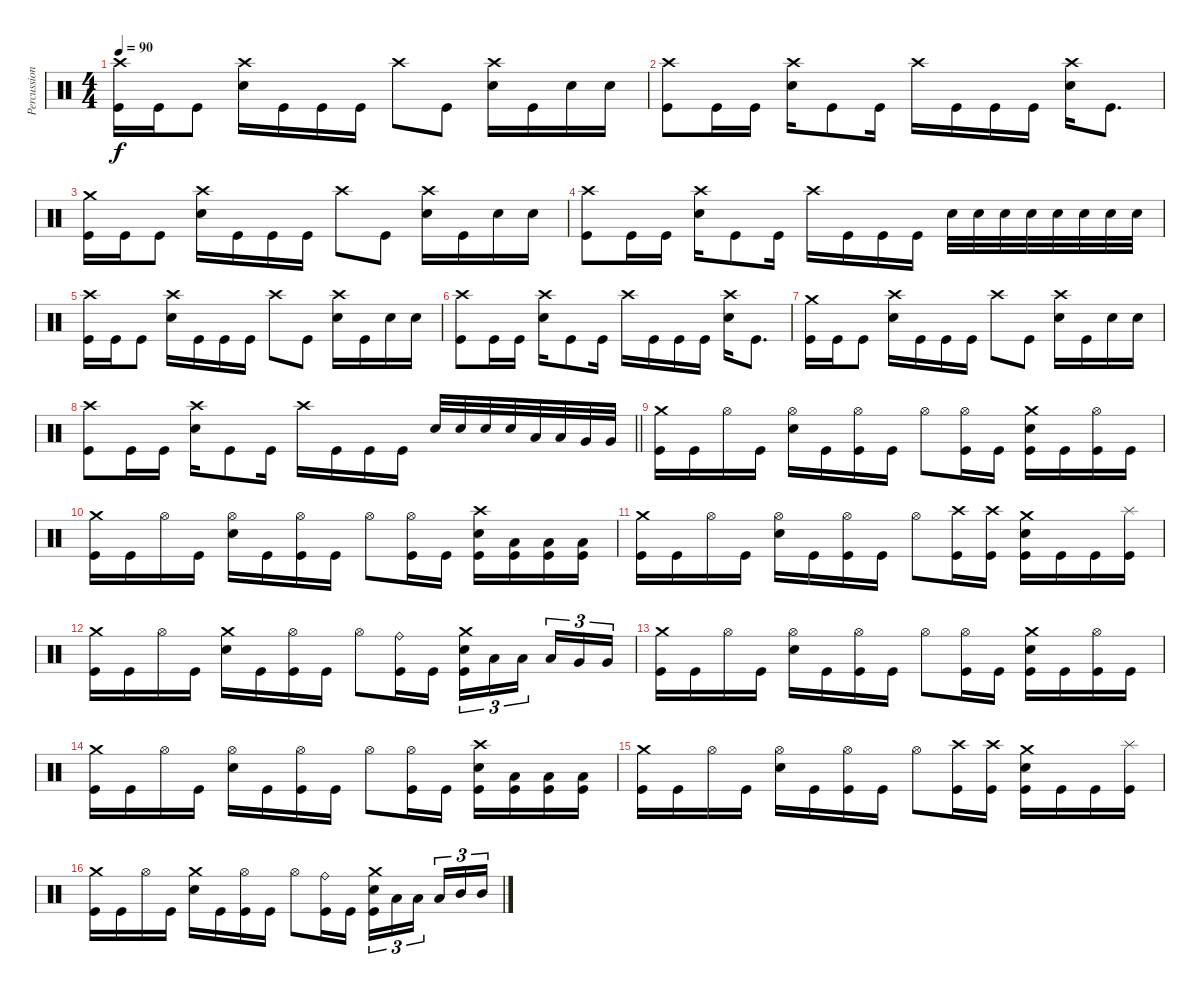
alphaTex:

\track ("Percussion" "Percussion") {instrument percussion}
\staff {score}
\articulation defaults
\ts (4 4)
\tempo 90
\clef neutral
\ks c
("Crash high (hit)" "Kick (hit)").16{dy f} "Kick (hit)".16 "Kick (hit)".8 ("Crash high (hit)" "Electric Snare (hit)").16 "Kick (hit)".16 "Kick (hit)".16 "Kick (hit)".16 "Crash high (hit)".8 "Kick (hit)".8 ("Crash high (hit)" "Electric Snare (hit)").16 "Kick (hit)".16 "Electric Snare (hit)".16 "Electric Snare (hit)".16 |
("Crash high (hit)" "Kick (hit)").8 "Kick (hit)".16 "Kick (hit)".16 ("Crash high (hit)" "Electric Snare (hit)").16 "Kick (hit)".8 "Kick (hit)".16 "Crash high (hit)".16 "Kick (hit)".16 "Kick (hit)".16 "Kick (hit)".16 ("Crash high (hit)" "Electric Snare (hit)").16 "Kick (hit)".8{d} |
("Crash medium (hit)" "Kick (hit)").16 "Kick (hit)".16 "Kick (hit)".8 ("Crash high (hit)" "Electric Snare (hit)").16 "Kick (hit)".16 "Kick (hit)".16 "Kick (hit)".16 "Crash high (hit)".8 "Kick (hit)".8 ("Crash high (hit)" "Electric Snare (hit)").16 "Kick (hit)".16 "Electric Snare (hit)".16 "Electric Snare (hit)".16 |
("Crash high (hit)" "Kick (hit)").8 "Kick (hit)".16 "Kick (hit)".16 ("Crash high (hit)" "Electric Snare (hit)").16 "Kick (hit)".8 "Kick (hit)".16 "Crash high (hit)".16 "Kick (hit)".16 "Kick (hit)".16 "Kick (hit)".16 "Electric Snare (hit)".32 "Electric Snare (hit)".32 "Electric Snare (hit)".32 "Electric Snare (hit)".32 "Electric Snare (hit)".32 "Electric Snare (hit)".32 "Electric Snare (hit)".32 "Electric Snare (hit)".32 |
("Crash high (hit)" "Kick (hit)").16 "Kick (hit)".16 "Kick (hit)".8 ("Crash high (hit)" "Electric Snare (hit)").16 "Kick (hit)".16 "Kick (hit)".16 "Kick (hit)".16 "Crash high (hit)".8 "Kick (hit)".8 ("Crash high (hit)" "Electric Snare (hit)").16 "Kick (hit)".16 "Electric Snare (hit)".16 "Electric Snare (hit)".16 |
("Crash high (hit)" "Kick (hit)").8 "Kick (hit)".16 "Kick (hit)".16 ("Crash high (hit)" "Electric Snare (hit)").16 "Kick (hit)".8 "Kick (hit)".16 "Crash high (hit)".16 "Kick (hit)".16 "Kick (hit)".16 "Kick (hit)".16 ("Crash high (hit)" "Electric Snare (hit)").16 "Kick (hit)".8{d} |
("Crash medium (hit)" "Kick (hit)").16 "Kick (hit)".16 "Kick (hit)".8 ("Crash high (hit)" "Electric Snare (hit)").16 "Kick (hit)".16 "Kick (hit)".16 "Kick (hit)".16 "Crash high (hit)".8 "Kick (hit)".8 ("Crash high (hit)" "Electric Snare (hit)").16 "Kick (hit)".16 "Electric Snare (hit)".16 "Electric Snare (hit)".16 |
\barLineRight lightlight
("Crash high (hit)" "Kick (hit)").8 "Kick (hit)".16 "Kick (hit)".16 ("Crash high (hit)" "Electric Snare (hit)").16 "Kick (hit)".8 "Kick (hit)".16 "Crash high (hit)".16 "Kick (hit)".16 "Kick (hit)".16 "Kick (hit)".16 "Electric Snare (hit)".32 "Electric Snare (hit)".32 "Electric Snare (hit)".32 "Electric Snare (hit)".32 "Low Tom (hit)".32 "Low Tom (hit)".32 "Very Low Tom (hit)".32 "Very Low Tom (hit)".32 |
("Crash medium (hit)" "Kick (hit)").16 "Kick (hit)".16 "Hi-Hat (open)".16 "Kick (hit)".16 ("Hi-Hat (open)" "Electric Snare (hit)").16 "Kick (hit)".16 ("Hi-Hat (open)" "Kick (hit)").16 "Kick (hit)".16 "Hi-Hat (open)".8 ("Hi-Hat (open)" "Kick (hit)").16 "Kick (hit)".16 ("Crash medium (hit)" "Electric Snare (hit)" "Kick (hit)").16 "Kick (hit)".16 ("Hi-Hat (open)" "Kick (hit)").16 "Kick (hit)".16 |
("Crash medium (hit)" "Kick (hit)").16 "Kick (hit)".16 "Hi-Hat (open)".16 "Kick (hit)".16 ("Hi-Hat (open)" "Electric Snare (hit)").16 "Kick (hit)".16 ("Hi-Hat (open)" "Kick (hit)").16 "Kick (hit)".16 "Hi-Hat (open)".8 ("Hi-Hat (open)" "Kick (hit)").16 "Kick (hit)".16 ("Crash high (hit)" "Electric Snare (hit)" "Kick (hit)").16 ("Low Tom (hit)" "Kick (hit)").16 ("Low Tom (hit)" "Kick (hit)").16 ("Low Tom (hit)" "Kick (hit)").16 |
("Crash medium (hit)" "Kick (hit)").16 "Kick (hit)".16 "Hi-Hat (open)".16 "Kick (hit)".16 ("Hi-Hat (open)" "Electric Snare (hit)").16 "Kick (hit)".16 ("Hi-Hat (open)" "Kick (hit)").16 "Kick (hit)".16 "Hi-Hat (open)".8 ("Crash high (hit)" "Kick (hit)").16 ("Crash high (hit)" "Kick (hit)").16 ("Crash medium (hit)" "Electric Snare (hit)" "Kick (hit)").16 "Kick (hit)".16 "Kick (hit)".16 ("Splash (hit)" "Kick (hit)").16 |
("Crash medium (hit)" "Kick (hit)").16 "Kick (hit)".16 "Hi-Hat (open)".16 "Kick (hit)".16 ("Crash medium (hit)" "Electric Snare (hit)").16 "Kick (hit)".16 ("Hi-Hat (open)" "Kick (hit)").16 "Kick (hit)".16 "Hi-Hat (open)".8 ("Ride (bell)" "Kick (hit)").16 "Kick (hit)".16 ("Crash medium (hit)" "Electric Snare (hit)" "Kick (hit)").16{tu (3 2)} "Low Tom (hit)".16{tu (3 2)} "Low Tom (hit)".16{tu (3 2) beam splitsecondary} "Low Tom (hit)".16{tu (3 2)} "Very Low Tom (hit)".16{tu (3 2)} "Very Low Tom (hit)".16{tu (3 2)} |
("Crash medium (hit)" "Kick (hit)").16 "Kick (hit)".16 "Hi-Hat (open)".16 "Kick (hit)".16 ("Hi-Hat (open)" "Electric Snare (hit)").16 "Kick (hit)".16 ("Hi-Hat (open)" "Kick (hit)").16 "Kick (hit)".16 "Hi-Hat (open)".8 ("Hi-Hat (open)" "Kick (hit)").16 "Kick (hit)".16 ("Crash medium (hit)" "Electric Snare (hit)" "Kick (hit)").16 "Kick (hit)".16 ("Hi-Hat (open)" "Kick (hit)").16 "Kick (hit)".16 |
("Crash medium (hit)" "Kick (hit)").16 "Kick (hit)".16 "Hi-Hat (open)".16 "Kick (hit)".16 ("Hi-Hat (open)" "Electric Snare (hit)").16 "Kick (hit)".16 ("Hi-Hat (open)" "Kick (hit)").16 "Kick (hit)".16 "Hi-Hat (open)".8 ("Hi-Hat (open)" "Kick (hit)").16 "Kick (hit)".16 ("Crash high (hit)" "Electric Snare (hit)" "Kick (hit)").16 ("Low Tom (hit)" "Kick (hit)").16 ("Low Tom (hit)" "Kick (hit)").16 ("Low Tom (hit)" "Kick (hit)").16 |
("Crash medium (hit)" "Kick (hit)").16 "Kick (hit)".16 "Hi-Hat (open)".16 "Kick (hit)".16 ("Hi-Hat (open)" "Electric Snare (hit)").16 "Kick (hit)".16 ("Hi-Hat (open)" "Kick (hit)").16 "Kick (hit)".16 "Hi-Hat (open)".8 ("Crash high (hit)" "Kick (hit)").16 ("Crash high (hit)" "Kick (hit)").16 ("Crash medium (hit)" "Electric Snare (hit)" "Kick (hit)").16 "Kick (hit)".16 "Kick (hit)".16 ("Splash (hit)" "Kick (hit)").16 |
("Crash medium (hit)" "Kick (hit)").16 "Kick (hit)".16 "Hi-Hat (open)".16 "Kick (hit)".16 ("Crash medium (hit)" "Electric Snare (hit)").16 "Kick (hit)".16 ("Hi-Hat (open)" "Kick (hit)").16 "Kick (hit)".16 "Hi-Hat (open)".8 ("Ride (bell)" "Kick (hit)").16 "Kick (hit)".16 ("Crash medium (hit)" "Electric Snare (hit)" "Kick (hit)").16{tu (3 2)} "Low Tom (hit)".16{tu (3 2)} "Low Tom (hit)".16{tu (3 2) beam splitsecondary} "Low Tom (hit)".16{tu (3 2)} "Mid Tom (hit)".16{tu (3 2)} "Mid Tom (hit)".16{tu (3 2)}
